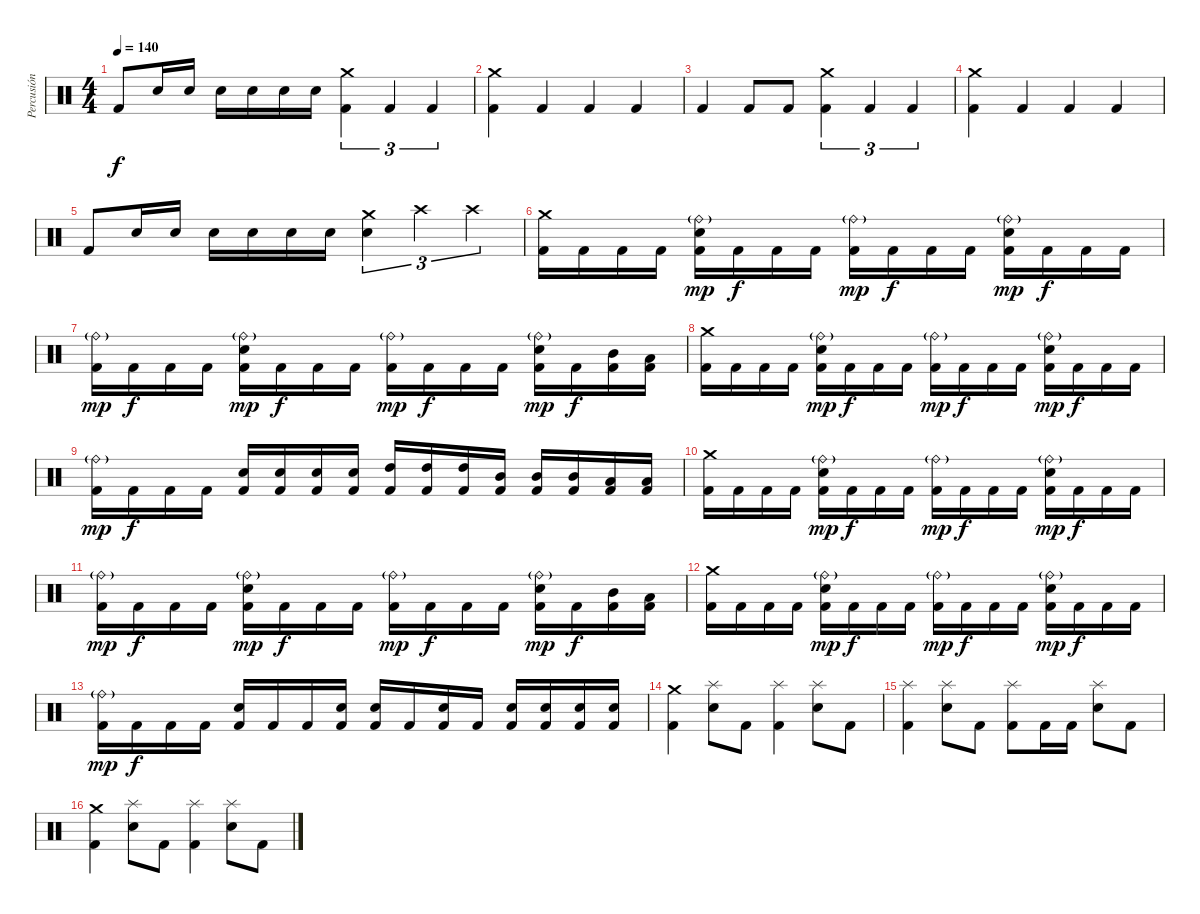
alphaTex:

\track ("Percusión" "Percusión") {instrument percussion}
\staff {score}
\articulation defaults
\ts (4 4)
\tempo 140
\clef neutral
\ks c "Kick (hit) 2".8{dy f} "Electric Snare (hit)".16 "Electric Snare (hit)".16 "Electric Snare (hit)".16 "Electric Snare (hit)".16 "Electric Snare (hit)".16 "Electric Snare (hit)".16
("Crash medium (hit)" "Kick (hit) 2").4{tu (3 2)} "Kick (hit) 2".4{tu (3 2)} "Kick (hit) 2".4{tu (3 2)} |
("Crash medium (hit)" "Kick (hit) 2").4 "Kick (hit) 2".4 "Kick (hit) 2".4 "Kick (hit) 2".4 |
"Kick (hit) 2".4 "Kick (hit) 2".8 "Kick (hit) 2".8 ("Crash medium (hit)" "Kick (hit) 2").4{tu (3 2)} "Kick (hit) 2".4{tu (3 2)} "Kick (hit) 2".4{tu (3 2)} |
("Crash medium (hit)" "Kick (hit) 2").4 "Kick (hit) 2".4 "Kick (hit) 2".4 "Kick (hit) 2".4 |
"Kick (hit) 2".8 "Electric Snare (hit)".16 "Electric Snare (hit)".16 "Electric Snare (hit)".16 "Electric Snare (hit)".16 "Electric Snare (hit)".16 "Electric Snare (hit)".16 ("Crash medium (hit)" "Electric Snare (hit)").4{tu (3 2)} "Crash high (hit)".4{tu (3 2)} "Crash high (hit)".4{tu (3 2)} |
("Crash medium (hit)" "Kick (hit) 2").16 "Kick (hit) 2".16 "Kick (hit) 2".16 "Kick (hit) 2".16 ("Ride (bell)"{g} "Electric Snare (hit)" "Kick (hit) 2").16{dy mp} "Kick (hit) 2".16{dy f} "Kick (hit) 2".16 "Kick (hit) 2".16 ("Ride (bell)"{g} "Kick (hit) 2").16{dy mp} "Kick (hit) 2".16{dy f} "Kick (hit) 2".16 "Kick (hit) 2".16 ("Ride (bell)"{g} "Electric Snare (hit)" "Kick (hit) 2").16{dy mp} "Kick (hit) 2".16{dy f} "Kick (hit) 2".16 "Kick (hit) 2".16 |
("Ride (bell)"{g} "Kick (hit) 2").16{dy mp} "Kick (hit) 2".16{dy f} "Kick (hit) 2".16 "Kick (hit) 2".16 ("Ride (bell)"{g} "Electric Snare (hit)" "Kick (hit) 2").16{dy mp} "Kick (hit) 2".16{dy f} "Kick (hit) 2".16 "Kick (hit) 2".16 ("Ride (bell)"{g} "Kick (hit) 2").16{dy mp} "Kick (hit) 2".16{dy f} "Kick (hit) 2".16 "Kick (hit) 2".16 ("Ride (bell)"{g} "Electric Snare (hit)" "Kick (hit) 2").16{dy mp} "Kick (hit) 2".16{dy f} ("Mid Tom (hit)" "Kick (hit) 2").16 ("Low Floor Tom (hit)" "Kick (hit) 2").16 |
("Crash medium (hit)" "Kick (hit) 2").16 "Kick (hit) 2".16 "Kick (hit) 2".16 "Kick (hit) 2".16 ("Ride (bell)"{g} "Electric Snare (hit)" "Kick (hit) 2").16{dy mp} "Kick (hit) 2".16{dy f} "Kick (hit) 2".16 "Kick (hit) 2".16 ("Ride (bell)"{g} "Kick (hit) 2").16{dy mp} "Kick (hit) 2".16{dy f} "Kick (hit) 2".16 "Kick (hit) 2".16 ("Ride (bell)"{g} "Electric Snare (hit)" "Kick (hit) 2").16{dy mp} "Kick (hit) 2".16{dy f} "Kick (hit) 2".16 "Kick (hit) 2".16 |
("Ride (bell)"{g} "Kick (hit) 2").16{dy mp} "Kick (hit) 2".16{dy f} "Kick (hit) 2".16 "Kick (hit) 2".16 ("Electric Snare (hit)" "Kick (hit) 2").16 ("Electric Snare (hit)" "Kick (hit) 2").16 ("Electric Snare (hit)" "Kick (hit) 2").16 ("Electric Snare (hit)" "Kick (hit) 2").16 ("High Tom (hit)" "Kick (hit) 2").16 ("High Tom (hit)" "Kick (hit) 2").16 ("High Tom (hit)" "Kick (hit) 2").16 ("Mid Tom (hit)" "Kick (hit) 2").16 ("Mid Tom (hit)" "Kick (hit) 2").16 ("Mid Tom (hit)" "Kick (hit) 2").16 ("Low Tom (hit)" "Kick (hit) 2").16 ("Low Tom (hit)" "Kick (hit) 2").16 |
("Crash medium (hit)" "Kick (hit) 2").16 "Kick (hit) 2".16 "Kick (hit) 2".16 "Kick (hit) 2".16 ("Ride (bell)"{g} "Electric Snare (hit)" "Kick (hit) 2").16{dy mp} "Kick (hit) 2".16{dy f} "Kick (hit) 2".16 "Kick (hit) 2".16 ("Ride (bell)"{g} "Kick (hit) 2").16{dy mp} "Kick (hit) 2".16{dy f} "Kick (hit) 2".16 "Kick (hit) 2".16 ("Ride (bell)"{g} "Electric Snare (hit)" "Kick (hit) 2").16{dy mp} "Kick (hit) 2".16{dy f} "Kick (hit) 2".16 "Kick (hit) 2".16 |
("Ride (bell)"{g} "Kick (hit) 2").16{dy mp} "Kick (hit) 2".16{dy f} "Kick (hit) 2".16 "Kick (hit) 2".16 ("Ride (bell)"{g} "Electric Snare (hit)" "Kick (hit) 2").16{dy mp} "Kick (hit) 2".16{dy f} "Kick (hit) 2".16 "Kick (hit) 2".16 ("Ride (bell)"{g} "Kick (hit) 2").16{dy mp} "Kick (hit) 2".16{dy f} "Kick (hit) 2".16 "Kick (hit) 2".16 ("Ride (bell)"{g} "Electric Snare (hit)" "Kick (hit) 2").16{dy mp} "Kick (hit) 2".16{dy f} ("Mid Tom (hit)" "Kick (hit) 2").16 ("Low Floor Tom (hit)" "Kick (hit) 2").16 |
("Crash medium (hit)" "Kick (hit) 2").16 "Kick (hit) 2".16 "Kick (hit) 2".16 "Kick (hit) 2".16 ("Ride (bell)"{g} "Electric Snare (hit)" "Kick (hit) 2").16{dy mp} "Kick (hit) 2".16{dy f} "Kick (hit) 2".16 "Kick (hit) 2".16 ("Ride (bell)"{g} "Kick (hit) 2").16{dy mp} "Kick (hit) 2".16{dy f} "Kick (hit) 2".16 "Kick (hit) 2".16 ("Ride (bell)"{g} "Electric Snare (hit)" "Kick (hit) 2").16{dy mp} "Kick (hit) 2".16{dy f} "Kick (hit) 2".16 "Kick (hit) 2".16 |
("Ride (bell)"{g} "Kick (hit) 2").16{dy mp} "Kick (hit) 2".16{dy f} "Kick (hit) 2".16 "Kick (hit) 2".16 ("Electric Snare (hit)" "Kick (hit) 2").16 "Kick (hit) 2".16 "Kick (hit) 2".16 ("Electric Snare (hit)" "Kick (hit) 2").16 ("Electric Snare (hit)" "Kick (hit) 2").16 "Kick (hit) 2".16 ("Electric Snare (hit)" "Kick (hit) 2").16 "Kick (hit) 2".16 ("Electric Snare (hit)" "Kick (hit) 2").16 ("Electric Snare (hit)" "Kick (hit) 2").16 ("Electric Snare (hit)" "Kick (hit) 2").16 ("Electric Snare (hit)" "Kick (hit) 2").16 |
("Crash medium (hit)" "Kick (hit) 2").4 ("Splash (hit)" "Electric Snare (hit)").8 "Kick (hit) 2".8 ("Splash (hit)" "Kick (hit) 2").4 ("Splash (hit)" "Electric Snare (hit)").8 "Kick (hit) 2".8 |
("Splash (hit)" "Kick (hit) 2").4 ("Splash (hit)" "Electric Snare (hit)").8 "Kick (hit) 2".8 ("Splash (hit)" "Kick (hit) 2").8 "Kick (hit) 2".16 "Kick (hit) 2".16 ("Splash (hit)" "Electric Snare (hit)").8 "Kick (hit) 2".8 |
("Crash medium (hit)" "Kick (hit) 2").4 ("Splash (hit)" "Electric Snare (hit)").8 "Kick (hit) 2".8 ("Splash (hit)" "Kick (hit) 2").4 ("Splash (hit)" "Electric Snare (hit)").8 "Kick (hit) 2".8
